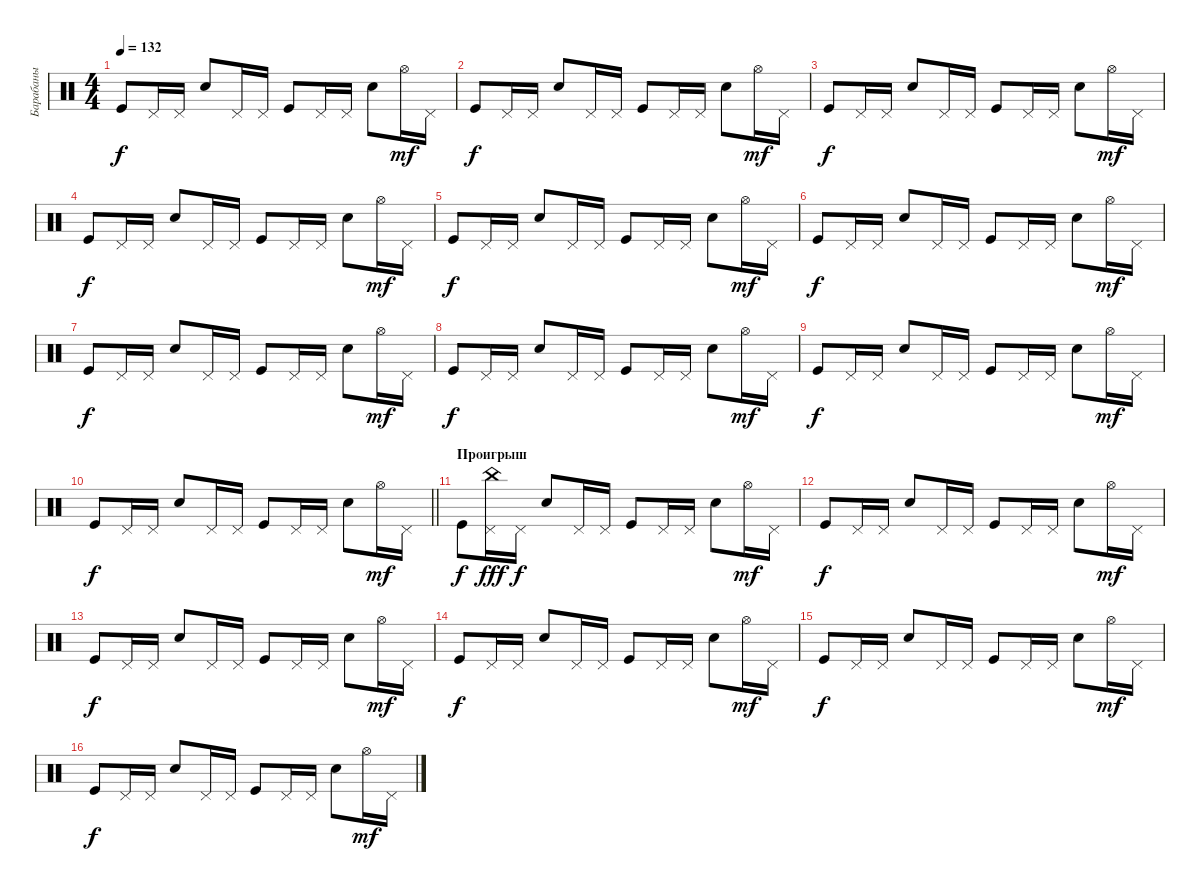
\track ("Барабаны" "Барабаны") {instrument percussion}
\staff {score}
\articulation defaults
\ts (4 4)
\tempo 132
\clef neutral
\ks c "Kick (hit)".8{dy f} "Pedal Hi-Hat (hit)".16 "Pedal Hi-Hat (hit)".16 "Snare (hit) 2".8 "Pedal Hi-Hat (hit)".16 "Pedal Hi-Hat (hit)".16 "Kick (hit)".8 "Pedal Hi-Hat (hit)".16 "Pedal Hi-Hat (hit)".16 "Snare (hit) 2".8 "Hi-Hat (open)".16{dy mf} "Pedal Hi-Hat (hit)".16
|
"Kick (hit)".8{dy f} "Pedal Hi-Hat (hit)".16 "Pedal Hi-Hat (hit)".16 "Snare (hit) 2".8 "Pedal Hi-Hat (hit)".16 "Pedal Hi-Hat (hit)".16 "Kick (hit)".8 "Pedal Hi-Hat (hit)".16 "Pedal Hi-Hat (hit)".16 "Snare (hit) 2".8 "Hi-Hat (open)".16{dy mf} "Pedal Hi-Hat (hit)".16 |
"Kick (hit)".8{dy f} "Pedal Hi-Hat (hit)".16 "Pedal Hi-Hat (hit)".16 "Snare (hit) 2".8 "Pedal Hi-Hat (hit)".16 "Pedal Hi-Hat (hit)".16 "Kick (hit)".8 "Pedal Hi-Hat (hit)".16 "Pedal Hi-Hat (hit)".16 "Snare (hit) 2".8 "Hi-Hat (open)".16{dy mf} "Pedal Hi-Hat (hit)".16 |
"Kick (hit)".8{dy f} "Pedal Hi-Hat (hit)".16 "Pedal Hi-Hat (hit)".16 "Snare (hit) 2".8 "Pedal Hi-Hat (hit)".16 "Pedal Hi-Hat (hit)".16 "Kick (hit)".8 "Pedal Hi-Hat (hit)".16 "Pedal Hi-Hat (hit)".16 "Snare (hit) 2".8 "Hi-Hat (open)".16{dy mf} "Pedal Hi-Hat (hit)".16 |
"Kick (hit)".8{dy f} "Pedal Hi-Hat (hit)".16 "Pedal Hi-Hat (hit)".16 "Snare (hit) 2".8 "Pedal Hi-Hat (hit)".16 "Pedal Hi-Hat (hit)".16 "Kick (hit)".8 "Pedal Hi-Hat (hit)".16 "Pedal Hi-Hat (hit)".16 "Snare (hit) 2".8 "Hi-Hat (open)".16{dy mf} "Pedal Hi-Hat (hit)".16 |
"Kick (hit)".8{dy f} "Pedal Hi-Hat (hit)".16 "Pedal Hi-Hat (hit)".16 "Snare (hit) 2".8 "Pedal Hi-Hat (hit)".16 "Pedal Hi-Hat (hit)".16 "Kick (hit)".8 "Pedal Hi-Hat (hit)".16 "Pedal Hi-Hat (hit)".16 "Snare (hit) 2".8 "Hi-Hat (open)".16{dy mf} "Pedal Hi-Hat (hit)".16 |
"Kick (hit)".8{dy f} "Pedal Hi-Hat (hit)".16 "Pedal Hi-Hat (hit)".16 "Snare (hit) 2".8 "Pedal Hi-Hat (hit)".16 "Pedal Hi-Hat (hit)".16 "Kick (hit)".8 "Pedal Hi-Hat (hit)".16 "Pedal Hi-Hat (hit)".16 "Snare (hit) 2".8 "Hi-Hat (open)".16{dy mf} "Pedal Hi-Hat (hit)".16 |
"Kick (hit)".8{dy f} "Pedal Hi-Hat (hit)".16 "Pedal Hi-Hat (hit)".16 "Snare (hit) 2".8 "Pedal Hi-Hat (hit)".16 "Pedal Hi-Hat (hit)".16 "Kick (hit)".8 "Pedal Hi-Hat (hit)".16 "Pedal Hi-Hat (hit)".16 "Snare (hit) 2".8 "Hi-Hat (open)".16{dy mf} "Pedal Hi-Hat (hit)".16 |
"Kick (hit)".8{dy f} "Pedal Hi-Hat (hit)".16 "Pedal Hi-Hat (hit)".16 "Snare (hit) 2".8 "Pedal Hi-Hat (hit)".16 "Pedal Hi-Hat (hit)".16 "Kick (hit)".8 "Pedal Hi-Hat (hit)".16 "Pedal Hi-Hat (hit)".16 "Snare (hit) 2".8 "Hi-Hat (open)".16{dy mf} "Pedal Hi-Hat (hit)".16 |
\barLineRight lightlight "Kick (hit)".8{dy f} "Pedal Hi-Hat (hit)".16 "Pedal Hi-Hat (hit)".16 "Snare (hit) 2".8 "Pedal Hi-Hat (hit)".16 "Pedal Hi-Hat (hit)".16 "Kick (hit)".8 "Pedal Hi-Hat (hit)".16 "Pedal Hi-Hat (hit)".16 "Snare (hit) 2".8 "Hi-Hat (open)".16{dy mf} "Pedal Hi-Hat (hit)".16
|
\section ("" "Проигрыш")
"Kick (hit)".8{dy f} ("Pedal Hi-Hat (hit)" "China (hit)").16{dy fff} "Pedal Hi-Hat (hit)".16{dy f} "Snare (hit) 2".8 "Pedal Hi-Hat (hit)".16 "Pedal Hi-Hat (hit)".16 "Kick (hit)".8 "Pedal Hi-Hat (hit)".16 "Pedal Hi-Hat (hit)".16 "Snare (hit) 2".8 "Hi-Hat (open)".16{dy mf} "Pedal Hi-Hat (hit)".16 |
"Kick (hit)".8{dy f} "Pedal Hi-Hat (hit)".16 "Pedal Hi-Hat (hit)".16 "Snare (hit) 2".8 "Pedal Hi-Hat (hit)".16 "Pedal Hi-Hat (hit)".16 "Kick (hit)".8 "Pedal Hi-Hat (hit)".16 "Pedal Hi-Hat (hit)".16 "Snare (hit) 2".8 "Hi-Hat (open)".16{dy mf} "Pedal Hi-Hat (hit)".16 |
"Kick (hit)".8{dy f} "Pedal Hi-Hat (hit)".16 "Pedal Hi-Hat (hit)".16 "Snare (hit) 2".8 "Pedal Hi-Hat (hit)".16 "Pedal Hi-Hat (hit)".16 "Kick (hit)".8 "Pedal Hi-Hat (hit)".16 "Pedal Hi-Hat (hit)".16 "Snare (hit) 2".8 "Hi-Hat (open)".16{dy mf} "Pedal Hi-Hat (hit)".16 |
"Kick (hit)".8{dy f} "Pedal Hi-Hat (hit)".16 "Pedal Hi-Hat (hit)".16 "Snare (hit) 2".8 "Pedal Hi-Hat (hit)".16 "Pedal Hi-Hat (hit)".16 "Kick (hit)".8 "Pedal Hi-Hat (hit)".16 "Pedal Hi-Hat (hit)".16 "Snare (hit) 2".8 "Hi-Hat (open)".16{dy mf} "Pedal Hi-Hat (hit)".16 |
"Kick (hit)".8{dy f} "Pedal Hi-Hat (hit)".16 "Pedal Hi-Hat (hit)".16 "Snare (hit) 2".8 "Pedal Hi-Hat (hit)".16 "Pedal Hi-Hat (hit)".16 "Kick (hit)".8 "Pedal Hi-Hat (hit)".16 "Pedal Hi-Hat (hit)".16 "Snare (hit) 2".8 "Hi-Hat (open)".16{dy mf} "Pedal Hi-Hat (hit)".16 |
"Kick (hit)".8{dy f} "Pedal Hi-Hat (hit)".16 "Pedal Hi-Hat (hit)".16 "Snare (hit) 2".8 "Pedal Hi-Hat (hit)".16 "Pedal Hi-Hat (hit)".16 "Kick (hit)".8 "Pedal Hi-Hat (hit)".16 "Pedal Hi-Hat (hit)".16 "Snare (hit) 2".8 "Hi-Hat (open)".16{dy mf} "Pedal Hi-Hat (hit)".16
